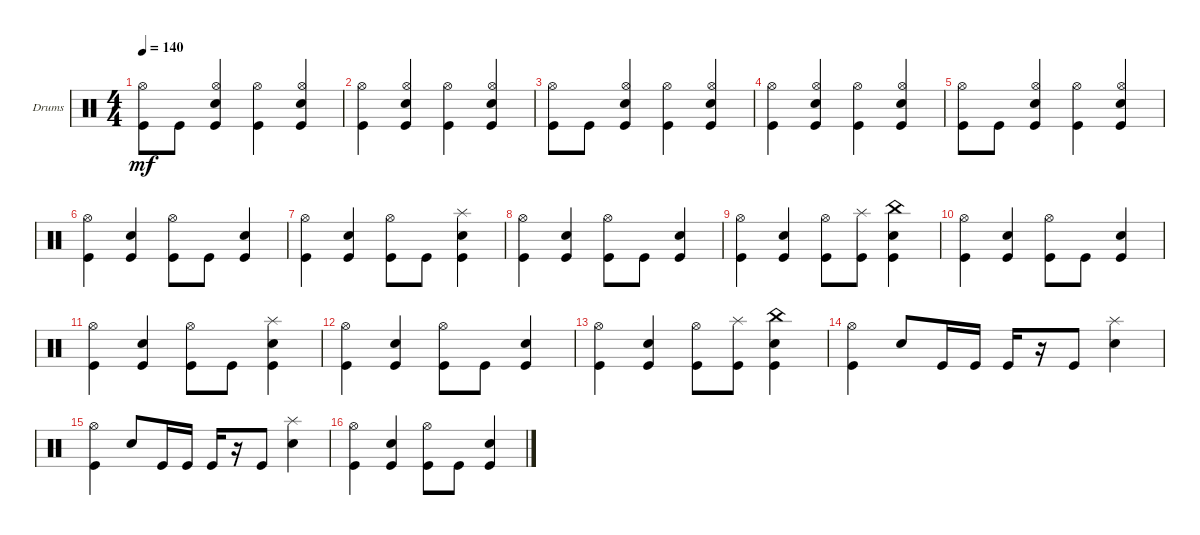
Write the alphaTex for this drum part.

\defaultSystemsLayout 4
\bracketExtendMode groupsimilarinstruments
\firstSystemTrackNameOrientation horizontal
\otherSystemsTrackNameOrientation horizontal
\track ("Drumkit" "Drums") {instrument percussion}
\staff {score}
\articulation defaults
\ts (4 4)
\tempo 140
\clef neutral
\scale
0.333333
\ks c
("Kick (hit)" "Hi-Hat (open)").8{dy mf} "Kick (hit)".8 ("Kick (hit)" "Snare (hit) 2" "Hi-Hat (open)").4 ("Kick (hit)" "Hi-Hat (open)").4 ("Kick (hit)" "Snare (hit) 2" "Hi-Hat (open)").4 |
\scale
0.333333 ("Kick (hit)" "Hi-Hat (open)").4 ("Kick (hit)" "Snare (hit) 2" "Hi-Hat (open)").4 ("Kick (hit)" "Hi-Hat (open)").4 ("Kick (hit)" "Snare (hit) 2" "Hi-Hat (open)").4 |
\scale
0.333333 ("Kick (hit)" "Hi-Hat (open)").8 "Kick (hit)".8 ("Kick (hit)" "Snare (hit) 2" "Hi-Hat (open)").4 ("Kick (hit)" "Hi-Hat (open)").4 ("Kick (hit)" "Snare (hit) 2" "Hi-Hat (open)").4 |
\scale
0.333333 ("Kick (hit)" "Hi-Hat (open)").4 ("Kick (hit)" "Snare (hit) 2" "Hi-Hat (open)").4 ("Kick (hit)" "Hi-Hat (open)").4 ("Kick (hit)" "Snare (hit) 2" "Hi-Hat (open)").4 |
\scale
0.333333 ("Kick (hit)" "Hi-Hat (open)").8 "Kick (hit)".8 ("Kick (hit)" "Snare (hit) 2" "Hi-Hat (open)").4 ("Kick (hit)" "Hi-Hat (open)").4 ("Kick (hit)" "Snare (hit) 2" "Hi-Hat (open)").4 |
\scale
0.333333 ("Hi-Hat (open)" "Kick (hit)").4 ("Kick (hit)" "Snare (hit) 2").4 ("Hi-Hat (open)" "Kick (hit)").8 "Kick (hit)".8 ("Kick (hit)" "Snare (hit) 2").4 |
\scale
0.333333 ("Hi-Hat (open)" "Kick (hit)").4 ("Kick (hit)" "Snare (hit) 2").4 ("Hi-Hat (open)" "Kick (hit)").8 "Kick (hit)".8 ("Kick (hit)" "Snare (hit) 2" "Splash (hit)").4 |
\scale
0.333333 ("Hi-Hat (open)" "Kick (hit)").4 ("Kick (hit)" "Snare (hit) 2").4 ("Hi-Hat (open)" "Kick (hit)").8 "Kick (hit)".8 ("Kick (hit)" "Snare (hit) 2").4 |
\scale
0.333333 ("Hi-Hat (open)" "Kick (hit)").4 ("Kick (hit)" "Snare (hit) 2").4 ("Hi-Hat (open)" "Kick (hit)").8 ("Kick (hit)" "Splash (hit)").8 ("Kick (hit)" "Snare (hit) 2" "China (hit)").4 |
\scale
0.333333 ("Hi-Hat (open)" "Kick (hit)").4 ("Kick (hit)" "Snare (hit) 2").4 ("Hi-Hat (open)" "Kick (hit)").8 "Kick (hit)".8 ("Kick (hit)" "Snare (hit) 2").4 |
\scale
0.333333 ("Hi-Hat (open)" "Kick (hit)").4 ("Kick (hit)" "Snare (hit) 2").4 ("Hi-Hat (open)" "Kick (hit)").8 "Kick (hit)".8 ("Kick (hit)" "Snare (hit) 2" "Splash (hit)").4 |
\scale
0.333333 ("Hi-Hat (open)" "Kick (hit)").4 ("Kick (hit)" "Snare (hit) 2").4 ("Hi-Hat (open)" "Kick (hit)").8 "Kick (hit)".8 ("Kick (hit)" "Snare (hit) 2").4 |
\scale
0.333333 ("Hi-Hat (open)" "Kick (hit)").4 ("Kick (hit)" "Snare (hit) 2").4 ("Hi-Hat (open)" "Kick (hit)").8 ("Kick (hit)" "Splash (hit)").8 ("Kick (hit)" "Snare (hit) 2" "China (hit)").4 |
\scale
0.333333 ("Kick (hit)" "Hi-Hat (open)").4 "Snare (hit) 2".8 "Kick (hit)".16 "Kick (hit)".16 "Kick (hit)".16 r.16 "Kick (hit)".8 ("Snare (hit) 2" "Splash (hit)").4 |
\scale
0.333333 ("Kick (hit)" "Hi-Hat (open)").4 "Snare (hit) 2".8 "Kick (hit)".16 "Kick (hit)".16 "Kick (hit)".16 r.16 "Kick (hit)".8 ("Snare (hit) 2" "Splash (hit)").4 |
\scale
0.333333 ("Kick (hit)" "Hi-Hat (open)").4 ("Kick (hit)" "Snare (hit) 2").4 ("Kick (hit)" "Hi-Hat (open)").8 "Kick (hit)".8 ("Kick (hit)" "Snare (hit) 2").4
